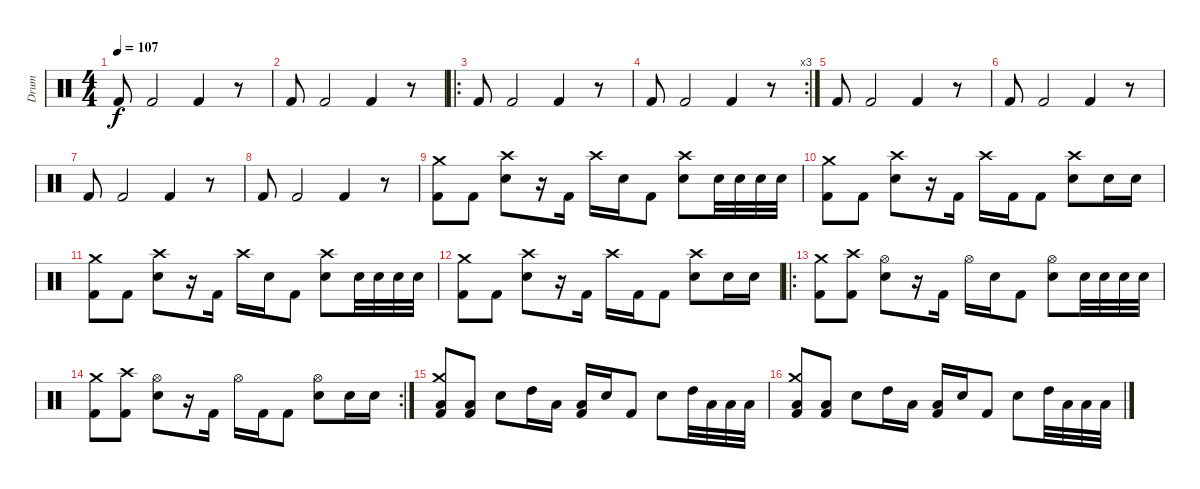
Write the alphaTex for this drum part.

\track ("Drum" "Drum") {instrument percussion}
\staff {score}
\articulation defaults
\ts (4 4)
\tempo 107
\clef neutral
\ks c "Kick (hit) 2".8{dy f} "Kick (hit) 2".2 "Kick (hit) 2".4
r.8 |
"Kick (hit) 2".8 "Kick (hit) 2".2 "Kick (hit) 2".4 r.8 |
\ro "Kick (hit) 2".8 "Kick (hit) 2".2 "Kick (hit) 2".4
r.8 |
\rc 3 "Kick (hit) 2".8 "Kick (hit) 2".2 "Kick (hit) 2".4
r.8 |
"Kick (hit) 2".8 "Kick (hit) 2".2 "Kick (hit) 2".4 r.8 |
"Kick (hit) 2".8 "Kick (hit) 2".2 "Kick (hit) 2".4 r.8 |
"Kick (hit) 2".8 "Kick (hit) 2".2 "Kick (hit) 2".4 r.8 |
"Kick (hit) 2".8 "Kick (hit) 2".2 "Kick (hit) 2".4 r.8 |
("Crash medium (hit)" "Kick (hit) 2").8 "Kick (hit) 2".8 ("Crash high (hit)" "Snare (hit) 2").8 r.16 "Kick (hit) 2".16 "Crash high (hit)".16 "Snare (hit) 2".16 "Kick (hit) 2".8 ("Crash high (hit)" "Snare (hit) 2").8 "Snare (hit) 2".32 "Snare (hit) 2".32 "Snare (hit) 2".32 "Snare (hit) 2".32 |
("Crash medium (hit)" "Kick (hit) 2").8 "Kick (hit) 2".8 ("Crash high (hit)" "Snare (hit) 2").8 r.16 "Kick (hit) 2".16 "Crash high (hit)".16 "Kick (hit) 2".16 "Kick (hit) 2".8 ("Crash high (hit)" "Snare (hit) 2").8 "Snare (hit) 2".16 "Snare (hit) 2".16 |
("Crash medium (hit)" "Kick (hit) 2").8 "Kick (hit) 2".8 ("Crash high (hit)" "Snare (hit) 2").8 r.16 "Kick (hit) 2".16 "Crash high (hit)".16 "Snare (hit) 2".16 "Kick (hit) 2".8 ("Crash high (hit)" "Snare (hit) 2").8 "Snare (hit) 2".32 "Snare (hit) 2".32 "Snare (hit) 2".32 "Snare (hit) 2".32 |
("Crash medium (hit)" "Kick (hit) 2").8 "Kick (hit) 2".8 ("Crash high (hit)" "Snare (hit) 2").8 r.16 "Kick (hit) 2".16 "Crash high (hit)".16 "Kick (hit) 2".16 "Kick (hit) 2".8 ("Crash high (hit)" "Snare (hit) 2").8 "Snare (hit) 2".16 "Snare (hit) 2".16 |
\ro
("Crash medium (hit)" "Kick (hit) 2").8 ("Crash high (hit)" "Kick (hit) 2").8 ("Hi-Hat (open)" "Snare (hit) 2").8 r.16 "Kick (hit) 2".16 "Hi-Hat (open)".16 "Snare (hit) 2".16 "Kick (hit) 2".8 ("Hi-Hat (open)" "Snare (hit) 2").8 "Snare (hit) 2".32 "Snare (hit) 2".32 "Snare (hit) 2".32 "Snare (hit) 2".32 |
\rc 2
("Crash medium (hit)" "Kick (hit) 2").8 ("Crash high (hit)" "Kick (hit) 2").8 ("Hi-Hat (open)" "Snare (hit) 2").8 r.16 "Kick (hit) 2".16 "Hi-Hat (open)".16 "Kick (hit) 2".16 "Kick (hit) 2".8 ("Hi-Hat (open)" "Snare (hit) 2").8 "Snare (hit) 2".16 "Snare (hit) 2".16 |
("Crash medium (hit)" "Low Floor Tom (hit)" "Kick (hit) 2").8 ("Low Floor Tom (hit)" "Kick (hit) 2").8 "Snare (hit) 2".8 "High Tom (hit)".16 "Low Tom (hit)".16 ("Low Floor Tom (hit)" "Kick (hit) 2").16 "Snare (hit) 2".16 "Kick (hit) 2".8 "Snare (hit) 2".8 "High Tom (hit)".32 "Low Tom (hit)".32 "Low Floor Tom (hit)".32 "Low Floor Tom (hit)".32 |
("Crash medium (hit)" "Low Floor Tom (hit)" "Kick (hit) 2").8 ("Low Floor Tom (hit)" "Kick (hit) 2").8 "Snare (hit) 2".8 "High Tom (hit)".16 "Low Tom (hit)".16 ("Low Floor Tom (hit)" "Kick (hit) 2").16 "Snare (hit) 2".16 "Kick (hit) 2".8 "Snare (hit) 2".8 "High Tom (hit)".32 "Low Tom (hit)".32 "Low Floor Tom (hit)".32 "Low Floor Tom (hit)".32
